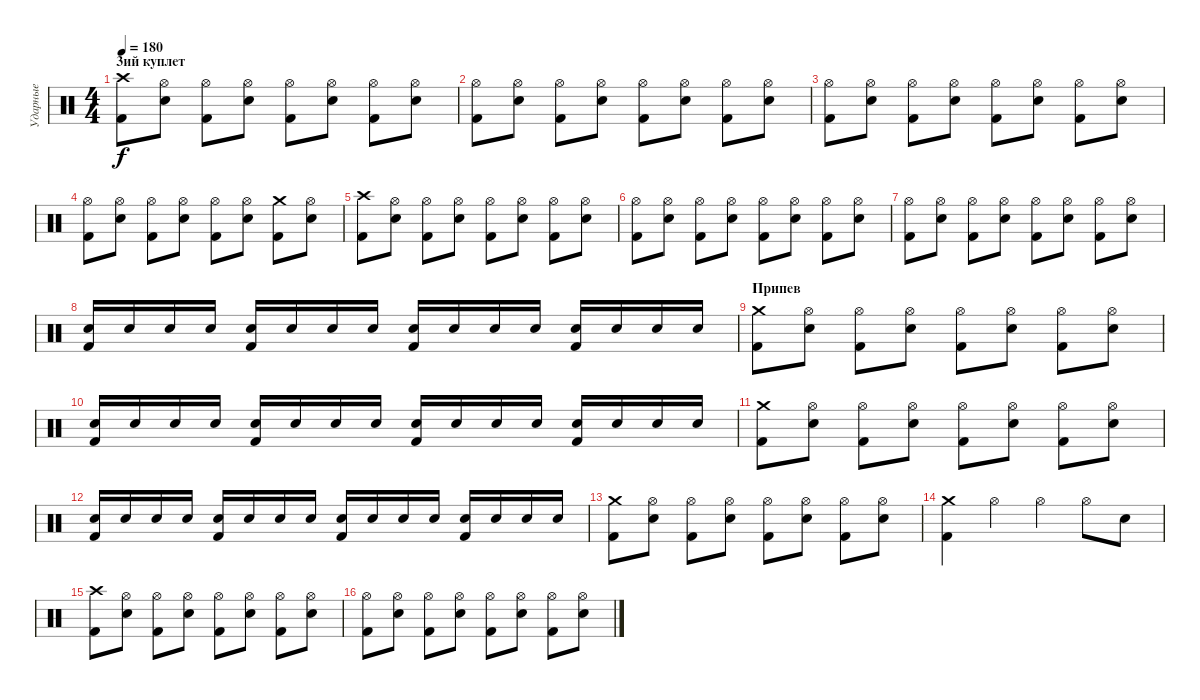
\track ("Ударные" "Ударные") {instrument percussion}
\staff {score}
\articulation defaults
\ts (4 4)
\section ("" "3ий куплет")
\tempo 180
\clef neutral
\ks c
("Crash high (hit)" "Kick (hit) 2").8{dy f} ("Hi-Hat (open)" "Electric Snare (hit)").8 ("Hi-Hat (open)" "Kick (hit) 2").8 ("Hi-Hat (open)" "Electric Snare (hit)").8 ("Hi-Hat (open)" "Kick (hit) 2").8 ("Hi-Hat (open)" "Electric Snare (hit)").8 ("Hi-Hat (open)" "Kick (hit) 2").8 ("Hi-Hat (open)" "Electric Snare (hit)").8 |
("Hi-Hat (open)" "Kick (hit) 2").8 ("Hi-Hat (open)" "Electric Snare (hit)").8 ("Hi-Hat (open)" "Kick (hit) 2").8 ("Hi-Hat (open)" "Electric Snare (hit)").8 ("Hi-Hat (open)" "Kick (hit) 2").8 ("Hi-Hat (open)" "Electric Snare (hit)").8 ("Hi-Hat (open)" "Kick (hit) 2").8 ("Hi-Hat (open)" "Electric Snare (hit)").8 |
("Hi-Hat (open)" "Kick (hit) 2").8 ("Hi-Hat (open)" "Electric Snare (hit)").8 ("Hi-Hat (open)" "Kick (hit) 2").8 ("Hi-Hat (open)" "Electric Snare (hit)").8 ("Hi-Hat (open)" "Kick (hit) 2").8 ("Hi-Hat (open)" "Electric Snare (hit)").8 ("Hi-Hat (open)" "Kick (hit) 2").8 ("Hi-Hat (open)" "Electric Snare (hit)").8 |
("Hi-Hat (open)" "Kick (hit) 2").8 ("Hi-Hat (open)" "Electric Snare (hit)").8 ("Hi-Hat (open)" "Kick (hit) 2").8 ("Hi-Hat (open)" "Electric Snare (hit)").8 ("Hi-Hat (open)" "Kick (hit) 2").8 ("Hi-Hat (open)" "Electric Snare (hit)").8 ("Crash medium (hit)" "Kick (hit) 2").8 ("Hi-Hat (open)" "Electric Snare (hit)").8 |
("Crash high (hit)" "Kick (hit) 2").8 ("Hi-Hat (open)" "Electric Snare (hit)").8 ("Hi-Hat (open)" "Kick (hit) 2").8 ("Hi-Hat (open)" "Electric Snare (hit)").8 ("Hi-Hat (open)" "Kick (hit) 2").8 ("Hi-Hat (open)" "Electric Snare (hit)").8 ("Hi-Hat (open)" "Kick (hit) 2").8 ("Hi-Hat (open)" "Electric Snare (hit)").8 |
("Hi-Hat (open)" "Kick (hit) 2").8 ("Hi-Hat (open)" "Electric Snare (hit)").8 ("Hi-Hat (open)" "Kick (hit) 2").8 ("Hi-Hat (open)" "Electric Snare (hit)").8 ("Hi-Hat (open)" "Kick (hit) 2").8 ("Hi-Hat (open)" "Electric Snare (hit)").8 ("Hi-Hat (open)" "Kick (hit) 2").8 ("Hi-Hat (open)" "Electric Snare (hit)").8 |
("Hi-Hat (open)" "Kick (hit) 2").8 ("Hi-Hat (open)" "Electric Snare (hit)").8 ("Hi-Hat (open)" "Kick (hit) 2").8 ("Hi-Hat (open)" "Electric Snare (hit)").8 ("Hi-Hat (open)" "Kick (hit) 2").8 ("Hi-Hat (open)" "Electric Snare (hit)").8 ("Hi-Hat (open)" "Kick (hit) 2").8 ("Hi-Hat (open)" "Electric Snare (hit)").8 |
("Electric Snare (hit)" "Kick (hit) 2").16 "Electric Snare (hit)".16 "Electric Snare (hit)".16 "Electric Snare (hit)".16 ("Electric Snare (hit)" "Kick (hit) 2").16 "Electric Snare (hit)".16 "Electric Snare (hit)".16 "Electric Snare (hit)".16 ("Electric Snare (hit)" "Kick (hit) 2").16 "Electric Snare (hit)".16 "Electric Snare (hit)".16 "Electric Snare (hit)".16 ("Electric Snare (hit)" "Kick (hit) 2").16 "Electric Snare (hit)".16 "Electric Snare (hit)".16 "Electric Snare (hit)".16 |
\section ("" "Припев")
("Crash medium (hit)" "Kick (hit) 2").8 ("Hi-Hat (open)" "Electric Snare (hit)").8 ("Hi-Hat (open)" "Kick (hit) 2").8 ("Hi-Hat (open)" "Electric Snare (hit)").8 ("Hi-Hat (open)" "Kick (hit) 2").8 ("Hi-Hat (open)" "Electric Snare (hit)").8 ("Hi-Hat (open)" "Kick (hit) 2").8 ("Hi-Hat (open)" "Electric Snare (hit)").8 |
("Electric Snare (hit)" "Kick (hit) 2").16 "Electric Snare (hit)".16 "Electric Snare (hit)".16 "Electric Snare (hit)".16 ("Electric Snare (hit)" "Kick (hit) 2").16 "Electric Snare (hit)".16 "Electric Snare (hit)".16 "Electric Snare (hit)".16 ("Electric Snare (hit)" "Kick (hit) 2").16 "Electric Snare (hit)".16 "Electric Snare (hit)".16 "Electric Snare (hit)".16 ("Electric Snare (hit)" "Kick (hit) 2").16 "Electric Snare (hit)".16 "Electric Snare (hit)".16 "Electric Snare (hit)".16 |
("Crash medium (hit)" "Kick (hit) 2").8 ("Hi-Hat (open)" "Electric Snare (hit)").8 ("Hi-Hat (open)" "Kick (hit) 2").8 ("Hi-Hat (open)" "Electric Snare (hit)").8 ("Hi-Hat (open)" "Kick (hit) 2").8 ("Hi-Hat (open)" "Electric Snare (hit)").8 ("Hi-Hat (open)" "Kick (hit) 2").8 ("Hi-Hat (open)" "Electric Snare (hit)").8 |
("Electric Snare (hit)" "Kick (hit) 2").16 "Electric Snare (hit)".16 "Electric Snare (hit)".16 "Electric Snare (hit)".16 ("Electric Snare (hit)" "Kick (hit) 2").16 "Electric Snare (hit)".16 "Electric Snare (hit)".16 "Electric Snare (hit)".16 ("Electric Snare (hit)" "Kick (hit) 2").16 "Electric Snare (hit)".16 "Electric Snare (hit)".16 "Electric Snare (hit)".16 ("Electric Snare (hit)" "Kick (hit) 2").16 "Electric Snare (hit)".16 "Electric Snare (hit)".16 "Electric Snare (hit)".16 |
("Crash medium (hit)" "Kick (hit) 2").8 ("Hi-Hat (open)" "Electric Snare (hit)").8 ("Hi-Hat (open)" "Kick (hit) 2").8 ("Hi-Hat (open)" "Electric Snare (hit)").8 ("Hi-Hat (open)" "Kick (hit) 2").8 ("Hi-Hat (open)" "Electric Snare (hit)").8 ("Hi-Hat (open)" "Kick (hit) 2").8 ("Hi-Hat (open)" "Electric Snare (hit)").8 |
("Crash medium (hit)" "Kick (hit) 2").4 "Hi-Hat (open)".4 "Hi-Hat (open)".4 "Hi-Hat (open)".8 "Electric Snare (hit)".8 |
("Crash high (hit)" "Kick (hit) 2").8 ("Hi-Hat (open)" "Electric Snare (hit)").8 ("Hi-Hat (open)" "Kick (hit) 2").8 ("Hi-Hat (open)" "Electric Snare (hit)").8 ("Hi-Hat (open)" "Kick (hit) 2").8 ("Hi-Hat (open)" "Electric Snare (hit)").8 ("Hi-Hat (open)" "Kick (hit) 2").8 ("Hi-Hat (open)" "Electric Snare (hit)").8 |
("Hi-Hat (open)" "Kick (hit) 2").8 ("Hi-Hat (open)" "Electric Snare (hit)").8 ("Hi-Hat (open)" "Kick (hit) 2").8 ("Hi-Hat (open)" "Electric Snare (hit)").8 ("Hi-Hat (open)" "Kick (hit) 2").8 ("Hi-Hat (open)" "Electric Snare (hit)").8 ("Hi-Hat (open)" "Kick (hit) 2").8 ("Hi-Hat (open)" "Electric Snare (hit)").8
